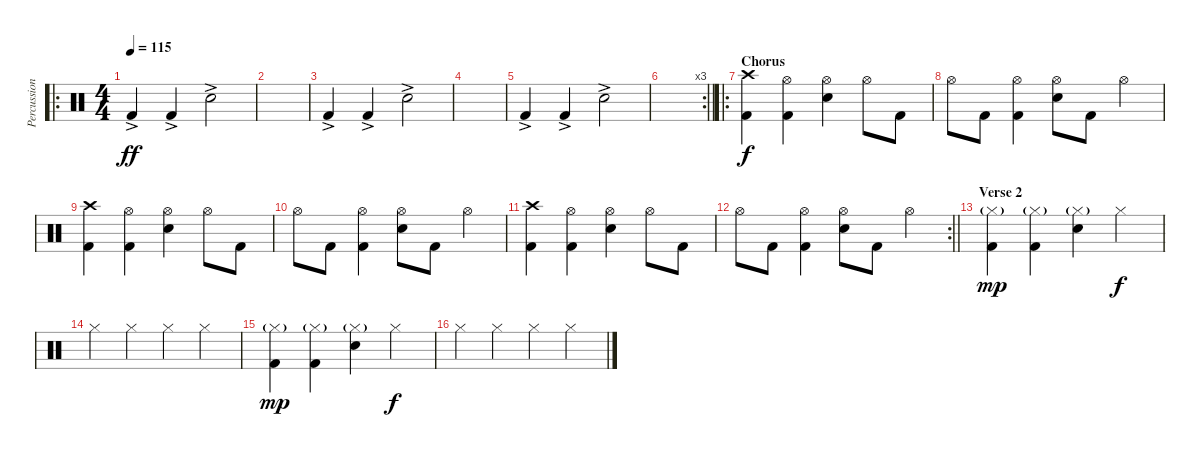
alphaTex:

\track ("Percussion" "Percussion") {instrument percussion}
\staff {score}
\articulation defaults
\ro
\ts (4 4)
\tempo 115
\clef neutral
\ks c "Kick (hit) 2"{ac}.4{dy ff} "Kick (hit) 2"{ac}.4 "Electric Snare (hit)"{ac}.2
|
|
"Kick (hit) 2"{ac}.4 "Kick (hit) 2"{ac}.4 "Electric Snare (hit)"{ac}.2 |
|
"Kick (hit) 2"{ac}.4 "Kick (hit) 2"{ac}.4 "Electric Snare (hit)"{ac}.2 |
\rc 3
\barLineRight lightlight
|
\ro
\section ("" "Chorus")
("Crash high (hit)" "Kick (hit) 2").4{dy f} ("Hi-Hat (open)" "Kick (hit) 2").4 ("Hi-Hat (open)" "Electric Snare (hit)").4 "Hi-Hat (open)".8 "Kick (hit) 2".8 |
"Hi-Hat (open)".8 "Kick (hit) 2".8 ("Hi-Hat (open)" "Kick (hit) 2").4 ("Hi-Hat (open)" "Electric Snare (hit)").8 "Kick (hit) 2".8 "Hi-Hat (open)".4 |
("Crash high (hit)" "Kick (hit) 2").4 ("Hi-Hat (open)" "Kick (hit) 2").4 ("Hi-Hat (open)" "Electric Snare (hit)").4 "Hi-Hat (open)".8 "Kick (hit) 2".8 |
"Hi-Hat (open)".8 "Kick (hit) 2".8 ("Hi-Hat (open)" "Kick (hit) 2").4 ("Hi-Hat (open)" "Electric Snare (hit)").8 "Kick (hit) 2".8 "Hi-Hat (open)".4 |
("Crash high (hit)" "Kick (hit) 2").4 ("Hi-Hat (open)" "Kick (hit) 2").4 ("Hi-Hat (open)" "Electric Snare (hit)").4 "Hi-Hat (open)".8 "Kick (hit) 2".8 |
\rc 2
\barLineRight lightlight "Hi-Hat (open)".8 "Kick (hit) 2".8
("Hi-Hat (open)" "Kick (hit) 2").4 ("Hi-Hat (open)" "Electric Snare (hit)").8 "Kick (hit) 2".8 "Hi-Hat (open)".4 |
\section ("" "Verse 2")
("Hi-Hat (closed)"{g} "Kick (hit) 2").4{dy mp} ("Hi-Hat (closed)"{g} "Kick (hit) 2").4 ("Hi-Hat (closed)"{g} "Electric Snare (hit)").4 "Hi-Hat (closed)".4{dy f} |
"Hi-Hat (closed)".4 "Hi-Hat (closed)".4 "Hi-Hat (closed)".4 "Hi-Hat (closed)".4 |
("Hi-Hat (closed)"{g} "Kick (hit) 2").4{dy mp} ("Hi-Hat (closed)"{g} "Kick (hit) 2").4 ("Hi-Hat (closed)"{g} "Electric Snare (hit)").4 "Hi-Hat (closed)".4{dy f} |
"Hi-Hat (closed)".4 "Hi-Hat (closed)".4 "Hi-Hat (closed)".4 "Hi-Hat (closed)".4
